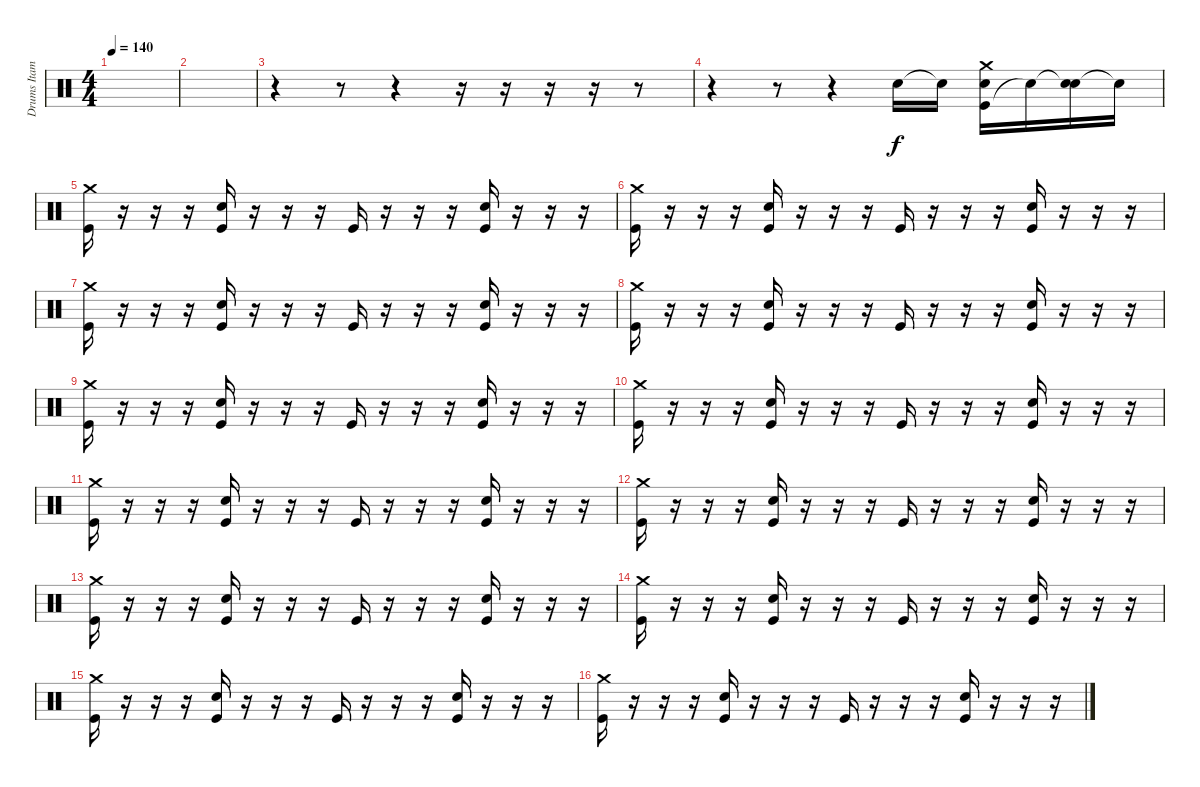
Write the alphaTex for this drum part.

\track ("Drums Itamar" "Drums Itam") {instrument percussion}
\staff {score}
\articulation defaults
\ts (4 4)
\tempo 140
\clef neutral
\ks c
|
|
r.4 r.8 r.4 r.16 r.16 r.16 r.16 r.8 |
r.4 r.8 r.4 "Snare (hit) 2".16 "Snare (hit) 2"{t}.16 ("Kick (hit)" "Crash medium (hit)" "Snare (hit) 2").16 "Snare (hit) 2"{t}.16 ("Snare (hit)"{t} "Snare (hit) 2").16 "Snare (hit) 2"{t}.16 |
("Kick (hit)" "Crash medium (hit)").16 r.16 r.16 r.16 ("Kick (hit)" "Snare (hit) 2").16 r.16 r.16 r.16 "Kick (hit)".16 r.16 r.16 r.16 ("Kick (hit)" "Snare (hit) 2").16 r.16 r.16 r.16 |
("Kick (hit)" "Crash medium (hit)").16 r.16 r.16 r.16 ("Kick (hit)" "Snare (hit) 2").16 r.16 r.16 r.16 "Kick (hit)".16 r.16 r.16 r.16 ("Kick (hit)" "Snare (hit) 2").16 r.16 r.16 r.16 |
("Kick (hit)" "Crash medium (hit)").16 r.16 r.16 r.16 ("Kick (hit)" "Snare (hit) 2").16 r.16 r.16 r.16 "Kick (hit)".16 r.16 r.16 r.16 ("Kick (hit)" "Snare (hit) 2").16 r.16 r.16 r.16 |
("Kick (hit)" "Crash medium (hit)").16 r.16 r.16 r.16 ("Kick (hit)" "Snare (hit) 2").16 r.16 r.16 r.16 "Kick (hit)".16 r.16 r.16 r.16 ("Kick (hit)" "Snare (hit) 2").16 r.16 r.16 r.16 |
("Kick (hit)" "Crash medium (hit)").16 r.16 r.16 r.16 ("Kick (hit)" "Snare (hit) 2").16 r.16 r.16 r.16 "Kick (hit)".16 r.16 r.16 r.16 ("Kick (hit)" "Snare (hit) 2").16 r.16 r.16 r.16 |
("Kick (hit)" "Crash medium (hit)").16 r.16 r.16 r.16 ("Kick (hit)" "Snare (hit) 2").16 r.16 r.16 r.16 "Kick (hit)".16 r.16 r.16 r.16 ("Kick (hit)" "Snare (hit) 2").16 r.16 r.16 r.16 |
("Kick (hit)" "Crash medium (hit)").16 r.16 r.16 r.16 ("Kick (hit)" "Snare (hit) 2").16 r.16 r.16 r.16 "Kick (hit)".16 r.16 r.16 r.16 ("Kick (hit)" "Snare (hit) 2").16 r.16 r.16 r.16 |
("Kick (hit)" "Crash medium (hit)").16 r.16 r.16 r.16 ("Kick (hit)" "Snare (hit) 2").16 r.16 r.16 r.16 "Kick (hit)".16 r.16 r.16 r.16 ("Kick (hit)" "Snare (hit) 2").16 r.16 r.16 r.16 |
("Kick (hit)" "Crash medium (hit)").16 r.16 r.16 r.16 ("Kick (hit)" "Snare (hit) 2").16 r.16 r.16 r.16 "Kick (hit)".16 r.16 r.16 r.16 ("Kick (hit)" "Snare (hit) 2").16 r.16 r.16 r.16 |
("Kick (hit)" "Crash medium (hit)").16 r.16 r.16 r.16 ("Kick (hit)" "Snare (hit) 2").16 r.16 r.16 r.16 "Kick (hit)".16 r.16 r.16 r.16 ("Kick (hit)" "Snare (hit) 2").16 r.16 r.16 r.16 |
("Kick (hit)" "Crash medium (hit)").16 r.16 r.16 r.16 ("Kick (hit)" "Snare (hit) 2").16 r.16 r.16 r.16 "Kick (hit)".16 r.16 r.16 r.16 ("Kick (hit)" "Snare (hit) 2").16 r.16 r.16 r.16 |
("Kick (hit)" "Crash medium (hit)").16 r.16 r.16 r.16 ("Kick (hit)" "Snare (hit) 2").16 r.16 r.16 r.16 "Kick (hit)".16 r.16 r.16 r.16 ("Kick (hit)" "Snare (hit) 2").16 r.16 r.16 r.16
